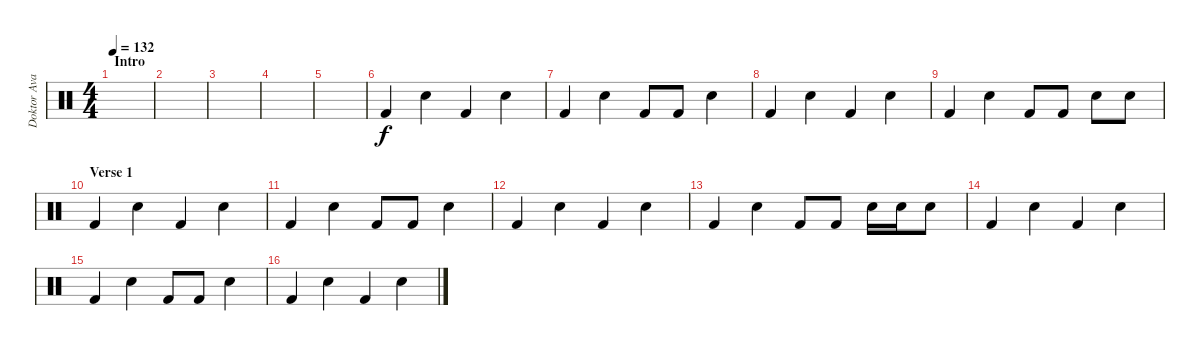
\track ("Doktor Avalanche" "Doktor Ava") {instrument percussion}
\staff {score}
\articulation defaults
\ts (4 4)
\section ("" "Intro")
\tempo 132
\clef neutral
\ks c
|
|
|
|
|
"Kick (hit) 2".4 "Electric Snare (hit)".4 "Kick (hit) 2".4 "Electric Snare (hit)".4 |
"Kick (hit) 2".4 "Electric Snare (hit)".4 "Kick (hit) 2".8 "Kick (hit) 2".8 "Electric Snare (hit)".4 |
"Kick (hit) 2".4 "Electric Snare (hit)".4 "Kick (hit) 2".4 "Electric Snare (hit)".4 |
"Kick (hit) 2".4 "Electric Snare (hit)".4 "Kick (hit) 2".8 "Kick (hit) 2".8 "Electric Snare (hit)".8 "Electric Snare (hit)".8 |
\section ("" "Verse 1")
"Kick (hit) 2".4 "Electric Snare (hit)".4 "Kick (hit) 2".4 "Electric Snare (hit)".4 |
"Kick (hit) 2".4 "Electric Snare (hit)".4 "Kick (hit) 2".8 "Kick (hit) 2".8 "Electric Snare (hit)".4 |
"Kick (hit) 2".4 "Electric Snare (hit)".4 "Kick (hit) 2".4 "Electric Snare (hit)".4 |
"Kick (hit) 2".4 "Electric Snare (hit)".4 "Kick (hit) 2".8 "Kick (hit) 2".8 "Electric Snare (hit)".16 "Electric Snare (hit)".16 "Electric Snare (hit)".8 |
"Kick (hit) 2".4 "Electric Snare (hit)".4 "Kick (hit) 2".4 "Electric Snare (hit)".4 |
"Kick (hit) 2".4 "Electric Snare (hit)".4 "Kick (hit) 2".8 "Kick (hit) 2".8 "Electric Snare (hit)".4 |
"Kick (hit) 2".4 "Electric Snare (hit)".4 "Kick (hit) 2".4 "Electric Snare (hit)".4
